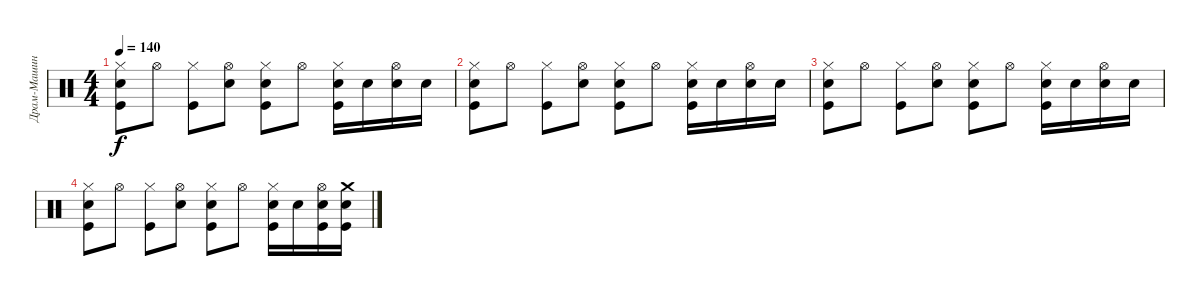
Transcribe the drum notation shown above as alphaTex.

\track ("Драм-Машина" "Драм-Машин") {instrument percussion}
\staff {score}
\articulation defaults
\ts (4 4)
\tempo 140
\clef neutral
\ks c
("Snare (hit) 2" "Hi-Hat (closed)" "Kick (hit)").8{dy f} "Hi-Hat (open)".8 ("Hi-Hat (closed)" "Kick (hit)").8 ("Snare (hit) 2" "Hi-Hat (open)").8 ("Snare (hit) 2" "Hi-Hat (closed)" "Kick (hit)").8 "Hi-Hat (open)".8 ("Snare (hit) 2" "Hi-Hat (closed)" "Kick (hit)").16 "Snare (hit) 2".16 ("Snare (hit) 2" "Hi-Hat (open)").16 "Snare (hit) 2".16 |
("Snare (hit) 2" "Hi-Hat (closed)" "Kick (hit)").8 "Hi-Hat (open)".8 ("Hi-Hat (closed)" "Kick (hit)").8 ("Snare (hit) 2" "Hi-Hat (open)").8 ("Snare (hit) 2" "Hi-Hat (closed)" "Kick (hit)").8 "Hi-Hat (open)".8 ("Snare (hit) 2" "Hi-Hat (closed)" "Kick (hit)").16 "Snare (hit) 2".16 ("Snare (hit) 2" "Hi-Hat (open)").16 "Snare (hit) 2".16 |
("Snare (hit) 2" "Hi-Hat (closed)" "Kick (hit)").8 "Hi-Hat (open)".8 ("Hi-Hat (closed)" "Kick (hit)").8 ("Snare (hit) 2" "Hi-Hat (open)").8 ("Snare (hit) 2" "Hi-Hat (closed)" "Kick (hit)").8 "Hi-Hat (open)".8 ("Snare (hit) 2" "Hi-Hat (closed)" "Kick (hit)").16 "Snare (hit) 2".16 ("Snare (hit) 2" "Hi-Hat (open)").16 "Snare (hit) 2".16 |
("Snare (hit) 2" "Hi-Hat (closed)" "Kick (hit)").8 "Hi-Hat (open)".8 ("Hi-Hat (closed)" "Kick (hit)").8 ("Snare (hit) 2" "Hi-Hat (open)").8 ("Snare (hit) 2" "Hi-Hat (closed)" "Kick (hit)").8 "Hi-Hat (open)".8 ("Snare (hit) 2" "Hi-Hat (closed)" "Kick (hit)").16 "Snare (hit) 2".16 ("Kick (hit)" "Snare (hit) 2" "Hi-Hat (open)").16 ("Crash medium (hit)" "Kick (hit)" "Snare (hit) 2").16
